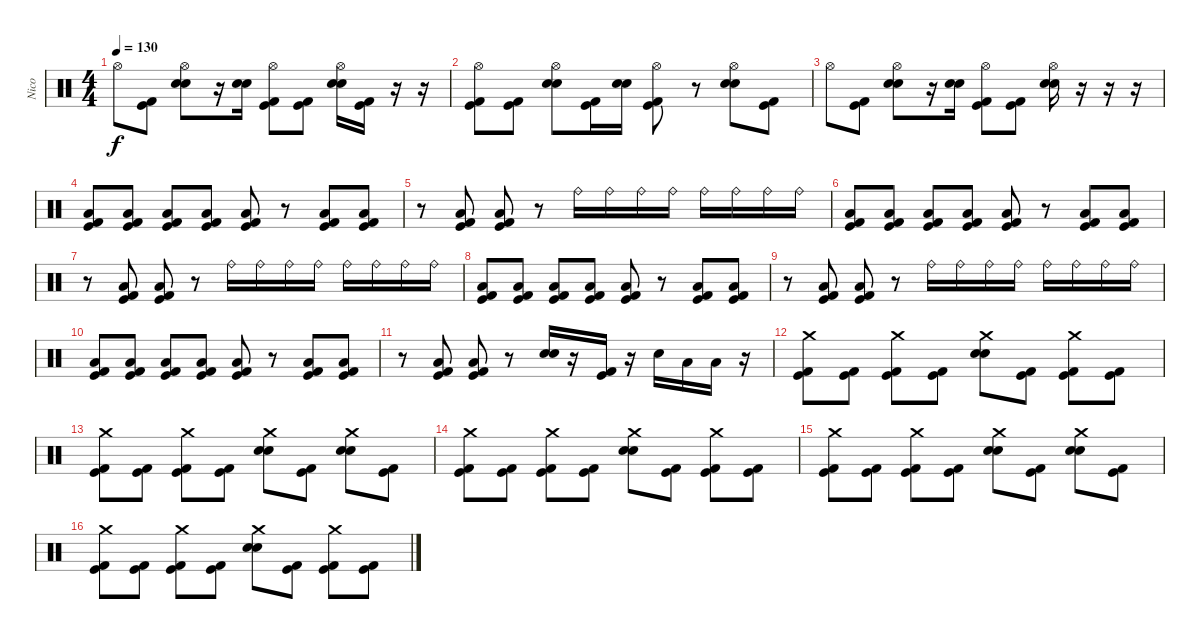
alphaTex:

\track ("Nico" "Nico") {instrument percussion}
\staff {score}
\articulation defaults
\ts (4 4)
\tempo 130
\clef neutral
\ks c "Hi-Hat (open)".8{dy f}
("Kick (hit) 2" "Kick (hit)").8 ("Hi-Hat (open)" "Electric Snare (hit)" "Electric Snare (hit)").8 r.16 ("Electric Snare (hit)" "Electric Snare (hit)").16 ("Hi-Hat (open)" "Kick (hit) 2" "Kick (hit)").8 ("Kick (hit) 2" "Kick (hit)").8 ("Hi-Hat (open)" "Electric Snare (hit)" "Electric Snare (hit)").16 ("Kick (hit) 2" "Kick (hit)").16 r.16 r.16 |
("Hi-Hat (open)" "Kick (hit) 2" "Kick (hit)").8 ("Kick (hit) 2" "Kick (hit)").8 ("Hi-Hat (open)" "Electric Snare (hit)" "Electric Snare (hit)").8 ("Kick (hit) 2" "Kick (hit)").16 ("Electric Snare (hit)" "Electric Snare (hit)").16 ("Hi-Hat (open)" "Kick (hit) 2" "Kick (hit)").8 r.8 ("Hi-Hat (open)" "Electric Snare (hit)" "Electric Snare (hit)").8 ("Kick (hit)" "Kick (hit) 2").8 |
"Hi-Hat (open)".8 ("Kick (hit) 2" "Kick (hit)").8 ("Hi-Hat (open)" "Electric Snare (hit)" "Electric Snare (hit)").8 r.16 ("Electric Snare (hit)" "Electric Snare (hit)").16 ("Hi-Hat (open)" "Kick (hit) 2" "Kick (hit)").8 ("Kick (hit) 2" "Kick (hit)").8 ("Hi-Hat (open)" "Electric Snare (hit)" "Electric Snare (hit)").16 r.16 r.16 r.16 |
("Low Floor Tom (hit)" "Kick (hit) 2" "Kick (hit)").8 ("Low Floor Tom (hit)" "Kick (hit) 2" "Kick (hit)").8 ("Low Floor Tom (hit)" "Kick (hit) 2" "Kick (hit)").8 ("Low Floor Tom (hit)" "Kick (hit)" "Kick (hit) 2").8 ("Low Floor Tom (hit)" "Kick (hit) 2" "Kick (hit)").8 r.8 ("Low Floor Tom (hit)" "Kick (hit) 2" "Kick (hit)").8 ("Low Floor Tom (hit)" "Kick (hit)" "Kick (hit) 2").8 |
r.8 ("Low Floor Tom (hit)" "Kick (hit) 2" "Kick (hit)").8 ("Low Floor Tom (hit)" "Kick (hit) 2" "Kick (hit)").8 r.8 "Ride (bell)".16 "Ride (bell)".16 "Ride (bell)".16 "Ride (bell)".16 "Ride (bell)".16 "Ride (bell)".16 "Ride (bell)".16 "Ride (bell)".16 |
("Low Floor Tom (hit)" "Kick (hit) 2" "Kick (hit)").8 ("Low Floor Tom (hit)" "Kick (hit) 2" "Kick (hit)").8 ("Low Floor Tom (hit)" "Kick (hit) 2" "Kick (hit)").8 ("Low Floor Tom (hit)" "Kick (hit)" "Kick (hit) 2").8 ("Low Floor Tom (hit)" "Kick (hit) 2" "Kick (hit)").8 r.8 ("Low Floor Tom (hit)" "Kick (hit) 2" "Kick (hit)").8 ("Low Floor Tom (hit)" "Kick (hit)" "Kick (hit) 2").8 |
r.8 ("Low Floor Tom (hit)" "Kick (hit) 2" "Kick (hit)").8 ("Low Floor Tom (hit)" "Kick (hit) 2" "Kick (hit)").8 r.8 "Ride (bell)".16 "Ride (bell)".16 "Ride (bell)".16 "Ride (bell)".16 "Ride (bell)".16 "Ride (bell)".16 "Ride (bell)".16 "Ride (bell)".16 |
("Low Floor Tom (hit)" "Kick (hit) 2" "Kick (hit)").8 ("Low Floor Tom (hit)" "Kick (hit) 2" "Kick (hit)").8 ("Low Floor Tom (hit)" "Kick (hit) 2" "Kick (hit)").8 ("Low Floor Tom (hit)" "Kick (hit)" "Kick (hit) 2").8 ("Low Floor Tom (hit)" "Kick (hit) 2" "Kick (hit)").8 r.8 ("Low Floor Tom (hit)" "Kick (hit) 2" "Kick (hit)").8 ("Low Floor Tom (hit)" "Kick (hit)" "Kick (hit) 2").8 |
r.8 ("Low Floor Tom (hit)" "Kick (hit) 2" "Kick (hit)").8 ("Low Floor Tom (hit)" "Kick (hit) 2" "Kick (hit)").8 r.8 "Ride (bell)".16 "Ride (bell)".16 "Ride (bell)".16 "Ride (bell)".16 "Ride (bell)".16 "Ride (bell)".16 "Ride (bell)".16 "Ride (bell)".16 |
("Low Floor Tom (hit)" "Kick (hit) 2" "Kick (hit)").8 ("Low Floor Tom (hit)" "Kick (hit) 2" "Kick (hit)").8 ("Low Floor Tom (hit)" "Kick (hit) 2" "Kick (hit)").8 ("Low Floor Tom (hit)" "Kick (hit)" "Kick (hit) 2").8 ("Low Floor Tom (hit)" "Kick (hit) 2" "Kick (hit)").8 r.8 ("Low Floor Tom (hit)" "Kick (hit) 2" "Kick (hit)").8 ("Low Floor Tom (hit)" "Kick (hit)" "Kick (hit) 2").8 |
r.8 ("Low Floor Tom (hit)" "Kick (hit) 2" "Kick (hit)").8 ("Low Floor Tom (hit)" "Kick (hit) 2" "Kick (hit)").8 r.8 ("Electric Snare (hit)" "Electric Snare (hit)").16 r.16 ("Kick (hit) 2" "Kick (hit)").16 r.16 "Electric Snare (hit)".16 "Low Tom (hit)".16 "Low Floor Tom (hit)".16 r.16 |
("Crash medium (hit)" "Kick (hit) 2" "Kick (hit)").8 ("Kick (hit) 2" "Kick (hit)").8 ("Crash medium (hit)" "Kick (hit) 2" "Kick (hit)").8 ("Kick (hit)" "Kick (hit) 2").8 ("Crash medium (hit)" "Electric Snare (hit)" "Electric Snare (hit)").8 ("Kick (hit) 2" "Kick (hit)").8 ("Crash medium (hit)" "Kick (hit) 2" "Kick (hit)").8 ("Kick (hit)" "Kick (hit) 2").8 |
("Crash medium (hit)" "Kick (hit) 2" "Kick (hit)").8 ("Kick (hit) 2" "Kick (hit)").8 ("Crash medium (hit)" "Kick (hit) 2" "Kick (hit)").8 ("Kick (hit)" "Kick (hit) 2").8 ("Crash medium (hit)" "Electric Snare (hit)" "Electric Snare (hit)").8 ("Kick (hit) 2" "Kick (hit)").8 ("Crash medium (hit)" "Electric Snare (hit)" "Electric Snare (hit)").8 ("Kick (hit)" "Kick (hit) 2").8 |
("Crash medium (hit)" "Kick (hit) 2" "Kick (hit)").8 ("Kick (hit) 2" "Kick (hit)").8 ("Crash medium (hit)" "Kick (hit) 2" "Kick (hit)").8 ("Kick (hit)" "Kick (hit) 2").8 ("Crash medium (hit)" "Electric Snare (hit)" "Electric Snare (hit)").8 ("Kick (hit) 2" "Kick (hit)").8 ("Crash medium (hit)" "Kick (hit) 2" "Kick (hit)").8 ("Kick (hit)" "Kick (hit) 2").8 |
("Crash medium (hit)" "Kick (hit) 2" "Kick (hit)").8 ("Kick (hit) 2" "Kick (hit)").8 ("Crash medium (hit)" "Kick (hit) 2" "Kick (hit)").8 ("Kick (hit)" "Kick (hit) 2").8 ("Crash medium (hit)" "Electric Snare (hit)" "Electric Snare (hit)").8 ("Kick (hit) 2" "Kick (hit)").8 ("Crash medium (hit)" "Electric Snare (hit)" "Electric Snare (hit)").8 ("Kick (hit)" "Kick (hit) 2").8 |
("Crash medium (hit)" "Kick (hit) 2" "Kick (hit)").8 ("Kick (hit) 2" "Kick (hit)").8 ("Crash medium (hit)" "Kick (hit) 2" "Kick (hit)").8 ("Kick (hit)" "Kick (hit) 2").8 ("Crash medium (hit)" "Electric Snare (hit)" "Electric Snare (hit)").8 ("Kick (hit) 2" "Kick (hit)").8 ("Crash medium (hit)" "Kick (hit) 2" "Kick (hit)").8 ("Kick (hit)" "Kick (hit) 2").8
